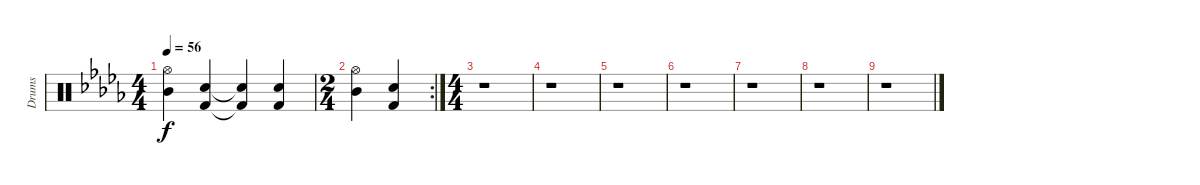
\track ("Drums" "Drums") {instrument percussion}
\staff {score}
\articulation defaults
\ts (4 4)
\tempo 56
\clef neutral
\ks bbminor
("Mid Tom (hit)" "Hi-Hat (open)").4{dy f} ("Snare (hit) 2" "Kick (hit) 2").4 ("Snare (hit) 2"{t} "Kick (hit) 2"{t}).4 ("Snare (hit) 2" "Kick (hit) 2").4 |
\rc 2
\ts (2 4)
("Mid Tom (hit)" "Hi-Hat (open)").4 ("Snare (hit) 2" "Kick (hit) 2").4 |
\ts (4 4)
r.1 |
r.1 |
r.1 |
r.1 |
r.1 |
r.1 |
r.1
